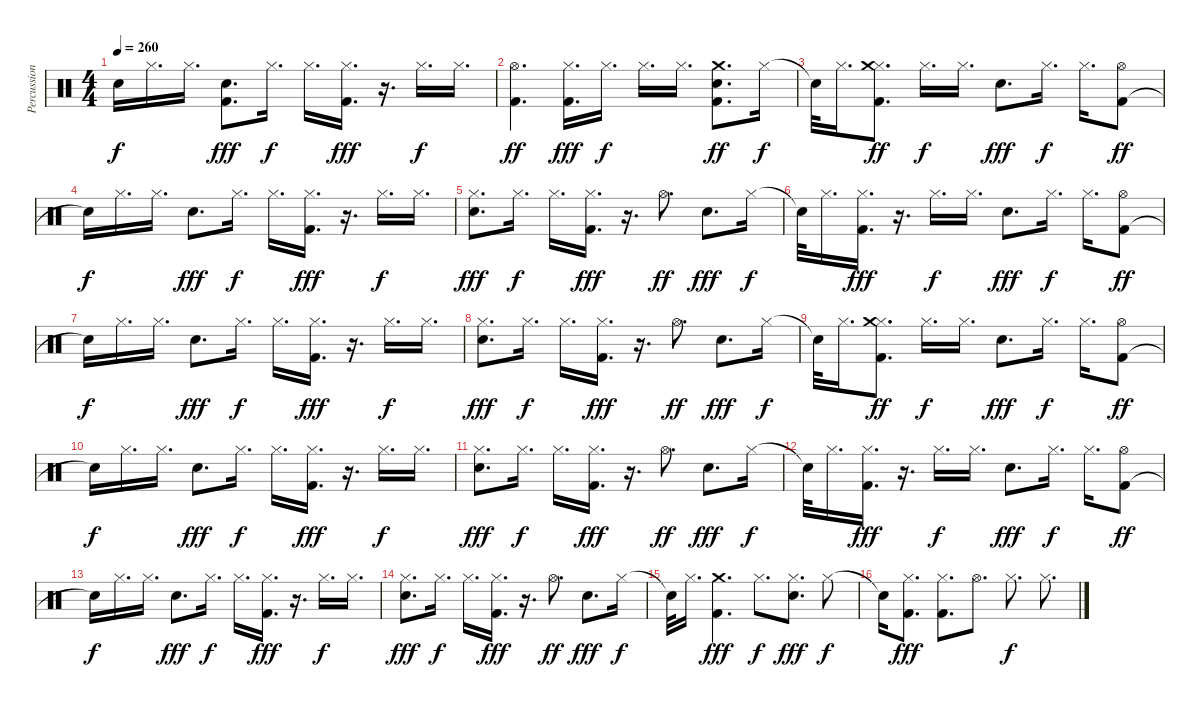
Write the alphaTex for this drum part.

\track ("Percussion" "Percussion") {instrument percussion}
\staff {score}
\articulation defaults
\ts (4 4)
\tempo 260
\clef neutral
\ks c "Snare (hit)"{t}.16{dy f} "Hi-Hat (closed)".16{d} "Hi-Hat (closed)".16{d}
("Kick (hit) 2" "Electric Snare (hit)").8{d dy fff} "Hi-Hat (closed)".16{d dy f} "Hi-Hat (closed)".16{d} ("Kick (hit) 2" "Hi-Hat (closed)").16{d dy fff} r.16{d} "Hi-Hat (closed)".16{d dy f} "Hi-Hat (closed)".16{d} |
("Kick (hit) 2" "Hi-Hat (open)").4{d dy ff} ("Kick (hit) 2" "Hi-Hat (closed)").16{d dy fff} "Hi-Hat (closed)".16{d dy f} "Hi-Hat (closed)".16{d} "Hi-Hat (closed)".16{d} ("Kick (hit) 2" "Electric Snare (hit)" "Crash medium (hit)").8{d dy ff} "Hi-Hat (closed)".16{dy f} |
"Snare (hit)"{t}.32 "Hi-Hat (closed)".16{d} ("Kick (hit) 2" "Hi-Hat (closed)" "Crash medium (hit)").8{d dy ff} "Hi-Hat (closed)".16{d dy f} "Hi-Hat (closed)".16{d} "Electric Snare (hit)".8{d dy fff} "Hi-Hat (closed)".16{d dy f} "Hi-Hat (closed)".16{d} ("Kick (hit) 2" "Hi-Hat (open)").8{dy ff} |
"Snare (hit)"{t}.16{dy f} "Hi-Hat (closed)".16{d} "Hi-Hat (closed)".16{d} "Electric Snare (hit)".8{d dy fff} "Hi-Hat (closed)".16{d dy f} "Hi-Hat (closed)".16{d} ("Kick (hit) 2" "Hi-Hat (closed)").16{d dy fff} r.16{d} "Hi-Hat (closed)".16{d dy f} "Hi-Hat (closed)".16{d} |
("Hi-Hat (closed)" "Electric Snare (hit)").8{d dy fff} "Hi-Hat (closed)".16{d dy f} "Hi-Hat (closed)".16{d} ("Kick (hit) 2" "Hi-Hat (closed)").16{d dy fff} r.16{d} "Hi-Hat (open)".8{d dy ff} "Electric Snare (hit)".8{d dy fff} "Hi-Hat (closed)".16{dy f} |
"Snare (hit)"{t}.32 "Hi-Hat (closed)".16{d} ("Kick (hit) 2" "Hi-Hat (closed)").16{d dy fff} r.16{d} "Hi-Hat (closed)".16{d dy f} "Hi-Hat (closed)".16{d} "Electric Snare (hit)".8{d dy fff} "Hi-Hat (closed)".16{d dy f} "Hi-Hat (closed)".16{d} ("Kick (hit) 2" "Hi-Hat (open)").8{dy ff} |
"Snare (hit)"{t}.16{dy f} "Hi-Hat (closed)".16{d} "Hi-Hat (closed)".16{d} "Electric Snare (hit)".8{d dy fff} "Hi-Hat (closed)".16{d dy f} "Hi-Hat (closed)".16{d} ("Kick (hit) 2" "Hi-Hat (closed)").16{d dy fff} r.16{d} "Hi-Hat (closed)".16{d dy f} "Hi-Hat (closed)".16{d} |
("Hi-Hat (closed)" "Electric Snare (hit)").8{d dy fff} "Hi-Hat (closed)".16{d dy f} "Hi-Hat (closed)".16{d} ("Kick (hit) 2" "Hi-Hat (closed)").16{d dy fff} r.16{d} "Hi-Hat (open)".8{d dy ff} "Electric Snare (hit)".8{d dy fff} "Hi-Hat (closed)".16{dy f} |
"Snare (hit)"{t}.32 "Hi-Hat (closed)".16{d} ("Kick (hit) 2" "Hi-Hat (closed)" "Crash medium (hit)").8{d dy ff} "Hi-Hat (closed)".16{d dy f} "Hi-Hat (closed)".16{d} "Electric Snare (hit)".8{d dy fff} "Hi-Hat (closed)".16{d dy f} "Hi-Hat (closed)".16{d} ("Kick (hit) 2" "Hi-Hat (open)").8{dy ff} |
"Snare (hit)"{t}.16{dy f} "Hi-Hat (closed)".16{d} "Hi-Hat (closed)".16{d} "Electric Snare (hit)".8{d dy fff} "Hi-Hat (closed)".16{d dy f} "Hi-Hat (closed)".16{d} ("Kick (hit) 2" "Hi-Hat (closed)").16{d dy fff} r.16{d} "Hi-Hat (closed)".16{d dy f} "Hi-Hat (closed)".16{d} |
("Hi-Hat (closed)" "Electric Snare (hit)").8{d dy fff} "Hi-Hat (closed)".16{d dy f} "Hi-Hat (closed)".16{d} ("Kick (hit) 2" "Hi-Hat (closed)").16{d dy fff} r.16{d} "Hi-Hat (open)".8{d dy ff} "Electric Snare (hit)".8{d dy fff} "Hi-Hat (closed)".16{dy f} |
"Snare (hit)"{t}.32 "Hi-Hat (closed)".16{d} ("Kick (hit) 2" "Hi-Hat (closed)").16{d dy fff} r.16{d} "Hi-Hat (closed)".16{d dy f} "Hi-Hat (closed)".16{d} "Electric Snare (hit)".8{d dy fff} "Hi-Hat (closed)".16{d dy f} "Hi-Hat (closed)".16{d} ("Kick (hit) 2" "Hi-Hat (open)").8{dy ff} |
"Snare (hit)"{t}.16{dy f} "Hi-Hat (closed)".16{d} "Hi-Hat (closed)".16{d} "Electric Snare (hit)".8{d dy fff} "Hi-Hat (closed)".16{d dy f} "Hi-Hat (closed)".16{d} ("Kick (hit) 2" "Hi-Hat (closed)").16{d dy fff} r.16{d} "Hi-Hat (closed)".16{d dy f} "Hi-Hat (closed)".16{d} |
("Hi-Hat (closed)" "Electric Snare (hit)").8{d dy fff} "Hi-Hat (closed)".16{d dy f} "Hi-Hat (closed)".16{d} ("Kick (hit) 2" "Hi-Hat (closed)").16{d dy fff} r.16{d} "Hi-Hat (open)".8{d dy ff} "Electric Snare (hit)".8{d dy fff} "Hi-Hat (closed)".16{dy f} |
"Snare (hit)"{t}.32 "Hi-Hat (closed)".16{d} ("Kick (hit) 2" "Crash medium (hit)").4{d dy fff} "Hi-Hat (closed)".8{d dy f} ("Electric Snare (hit)" "Hi-Hat (closed)").8{d dy fff} "Hi-Hat (closed)".8{dy f} |
"Snare (hit)"{t}.16 ("Kick (hit) 2" "Hi-Hat (closed)").8{d dy fff} ("Kick (hit) 2" "Hi-Hat (closed)").8{d} "Hi-Hat (open)".8{d} "Hi-Hat (closed)".8{d dy f} "Hi-Hat (closed)".8{d}
